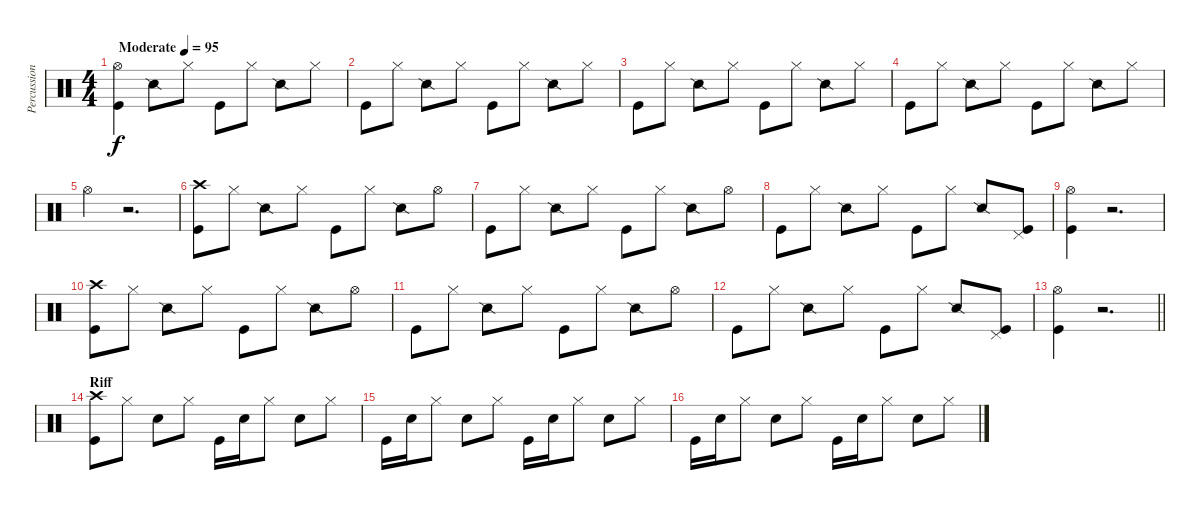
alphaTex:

\track ("Percussion" "Percussion") {instrument percussion}
\staff {score}
\articulation defaults
\ts (4 4)
\tempo (95 "Moderate")
\clef neutral
\ks c
("Kick (hit)" "Hi-Hat (open)").4{dy f} "Snare (side stick) 2".8 "Hi-Hat (closed)".8 "Kick (hit)".8 "Hi-Hat (closed)".8 "Snare (side stick) 2".8 "Hi-Hat (closed)".8 |
"Kick (hit)".8 "Hi-Hat (closed)".8 "Snare (side stick) 2".8 "Hi-Hat (closed)".8 "Kick (hit)".8 "Hi-Hat (closed)".8 "Snare (side stick) 2".8 "Hi-Hat (closed)".8 |
"Kick (hit)".8 "Hi-Hat (closed)".8 "Snare (side stick) 2".8 "Hi-Hat (closed)".8 "Kick (hit)".8 "Hi-Hat (closed)".8 "Snare (side stick) 2".8 "Hi-Hat (closed)".8 |
"Kick (hit)".8 "Hi-Hat (closed)".8 "Snare (side stick) 2".8 "Hi-Hat (closed)".8 "Kick (hit)".8 "Hi-Hat (closed)".8 "Snare (side stick) 2".8 "Hi-Hat (closed)".8 |
"Hi-Hat (open)".4 r.2{d} |
("Kick (hit)" "Crash high (hit)").8 "Hi-Hat (closed)".8 "Snare (side stick) 2".8 "Hi-Hat (closed)".8 "Kick (hit)".8 "Hi-Hat (closed)".8 "Snare (side stick) 2".8 "Hi-Hat (open)".8 |
"Kick (hit)".8 "Hi-Hat (closed)".8 "Snare (side stick) 2".8 "Hi-Hat (closed)".8 "Kick (hit)".8 "Hi-Hat (closed)".8 "Snare (side stick) 2".8 "Hi-Hat (open)".8 |
"Kick (hit)".8 "Hi-Hat (closed)".8 "Snare (side stick) 2".8 "Hi-Hat (closed)".8 "Kick (hit)".8 "Hi-Hat (closed)".8 "Snare (side stick) 2".8 ("Kick (hit)" "Pedal Hi-Hat (hit)").8 |
("Kick (hit)" "Hi-Hat (open)").4 r.2{d} |
("Kick (hit)" "Crash high (hit)").8 "Hi-Hat (closed)".8 "Snare (side stick) 2".8 "Hi-Hat (closed)".8 "Kick (hit)".8 "Hi-Hat (closed)".8 "Snare (side stick) 2".8 "Hi-Hat (open)".8 |
"Kick (hit)".8 "Hi-Hat (closed)".8 "Snare (side stick) 2".8 "Hi-Hat (closed)".8 "Kick (hit)".8 "Hi-Hat (closed)".8 "Snare (side stick) 2".8 "Hi-Hat (open)".8 |
"Kick (hit)".8 "Hi-Hat (closed)".8 "Snare (side stick) 2".8 "Hi-Hat (closed)".8 "Kick (hit)".8 "Hi-Hat (closed)".8 "Snare (side stick) 2".8 ("Kick (hit)" "Pedal Hi-Hat (hit)").8 |
\barLineRight lightlight
("Kick (hit)" "Hi-Hat (open)").4 r.2{d} |
\section ("" "Riff")
("Kick (hit)" "Crash high (hit)").8 "Hi-Hat (closed)".8 "Snare (hit) 2".8 "Hi-Hat (closed)".8 "Kick (hit)".16 "Snare (hit) 2".16 "Hi-Hat (closed)".8 "Snare (hit) 2".8 "Hi-Hat (closed)".8 |
"Kick (hit)".16 "Snare (hit) 2".16 "Hi-Hat (closed)".8 "Snare (hit) 2".8 "Hi-Hat (closed)".8 "Kick (hit)".16 "Snare (hit) 2".16 "Hi-Hat (closed)".8 "Snare (hit) 2".8 "Hi-Hat (closed)".8 |
"Kick (hit)".16 "Snare (hit) 2".16 "Hi-Hat (closed)".8 "Snare (hit) 2".8 "Hi-Hat (closed)".8 "Kick (hit)".16 "Snare (hit) 2".16 "Hi-Hat (closed)".8 "Snare (hit) 2".8 "Hi-Hat (closed)".8
